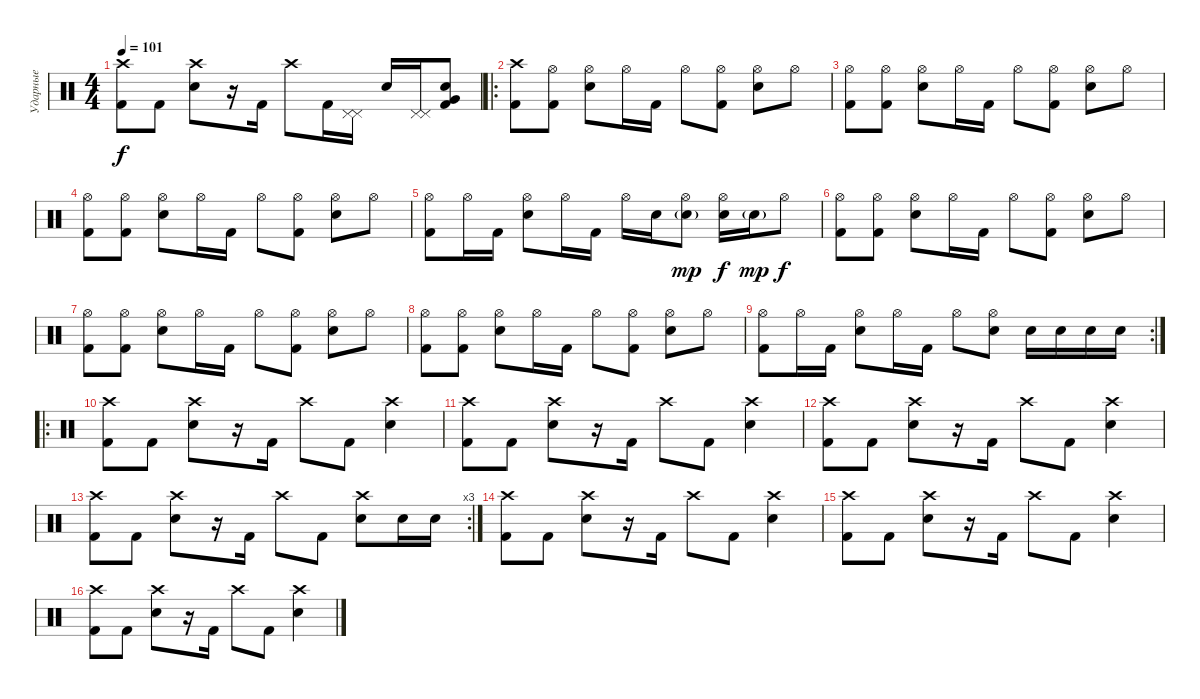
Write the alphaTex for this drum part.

\track ("Ударные" "Ударные") {instrument percussion}
\staff {score}
\articulation defaults
\ts (4 4)
\tempo 101
\clef neutral
\ks c
("Crash high (hit)" "Kick (hit) 2").8{dy f} "Kick (hit) 2".8 ("Crash high (hit)" "Snare (hit) 2").8 r.16 "Kick (hit) 2".16 "Crash high (hit)".8 "Kick (hit) 2".16 ("Pedal Hi-Hat (hit)" "Pedal Hi-Hat (hit)").16 "Snare (hit) 2".16 ("Pedal Hi-Hat (hit)" "Pedal Hi-Hat (hit)").16 ("Kick (hit) 2" "Snare (hit) 2" "Very Low Tom (hit)").8 |
\ro
("Crash high (hit)" "Kick (hit) 2").8 ("Hi-Hat (open)" "Kick (hit) 2").8 ("Hi-Hat (open)" "Snare (hit) 2").8 "Hi-Hat (open)".16 "Kick (hit) 2".16 "Hi-Hat (open)".8 ("Hi-Hat (open)" "Kick (hit) 2").8 ("Hi-Hat (open)" "Snare (hit) 2").8 "Hi-Hat (open)".8 |
("Hi-Hat (open)" "Kick (hit) 2").8 ("Hi-Hat (open)" "Kick (hit) 2").8 ("Hi-Hat (open)" "Snare (hit) 2").8 "Hi-Hat (open)".16 "Kick (hit) 2".16 "Hi-Hat (open)".8 ("Hi-Hat (open)" "Kick (hit) 2").8 ("Hi-Hat (open)" "Snare (hit) 2").8 "Hi-Hat (open)".8 |
("Hi-Hat (open)" "Kick (hit) 2").8 ("Hi-Hat (open)" "Kick (hit) 2").8 ("Hi-Hat (open)" "Snare (hit) 2").8 "Hi-Hat (open)".16 "Kick (hit) 2".16 "Hi-Hat (open)".8 ("Hi-Hat (open)" "Kick (hit) 2").8 ("Hi-Hat (open)" "Snare (hit) 2").8 "Hi-Hat (open)".8 |
("Hi-Hat (open)" "Kick (hit) 2").8 "Hi-Hat (open)".16 "Kick (hit) 2".16 ("Hi-Hat (open)" "Snare (hit) 2").8 "Hi-Hat (open)".16 "Kick (hit) 2".16 "Hi-Hat (open)".16 "Snare (hit) 2".16 ("Hi-Hat (open)" "Snare (hit) 2"{g}).8{dy mp} ("Hi-Hat (open)" "Snare (hit) 2").16{dy f} "Snare (hit) 2"{g}.16{dy mp} "Hi-Hat (open)".8{dy f} |
("Hi-Hat (open)" "Kick (hit) 2").8 ("Hi-Hat (open)" "Kick (hit) 2").8 ("Hi-Hat (open)" "Snare (hit) 2").8 "Hi-Hat (open)".16 "Kick (hit) 2".16 "Hi-Hat (open)".8 ("Hi-Hat (open)" "Kick (hit) 2").8 ("Hi-Hat (open)" "Snare (hit) 2").8 "Hi-Hat (open)".8 |
("Hi-Hat (open)" "Kick (hit) 2").8 ("Hi-Hat (open)" "Kick (hit) 2").8 ("Hi-Hat (open)" "Snare (hit) 2").8 "Hi-Hat (open)".16 "Kick (hit) 2".16 "Hi-Hat (open)".8 ("Hi-Hat (open)" "Kick (hit) 2").8 ("Hi-Hat (open)" "Snare (hit) 2").8 "Hi-Hat (open)".8 |
("Hi-Hat (open)" "Kick (hit) 2").8 ("Hi-Hat (open)" "Kick (hit) 2").8 ("Hi-Hat (open)" "Snare (hit) 2").8 "Hi-Hat (open)".16 "Kick (hit) 2".16 "Hi-Hat (open)".8 ("Hi-Hat (open)" "Kick (hit) 2").8 ("Hi-Hat (open)" "Snare (hit) 2").8 "Hi-Hat (open)".8 |
\rc 2
("Hi-Hat (open)" "Kick (hit) 2").8 "Hi-Hat (open)".16 "Kick (hit) 2".16 ("Hi-Hat (open)" "Snare (hit) 2").8 "Hi-Hat (open)".16 "Kick (hit) 2".16 "Hi-Hat (open)".8 ("Hi-Hat (open)" "Snare (hit) 2").8 "Snare (hit) 2".16 "Snare (hit) 2".16 "Snare (hit) 2".16 "Snare (hit) 2".16 |
\ro
("Crash high (hit)" "Kick (hit) 2").8 "Kick (hit) 2".8 ("Crash high (hit)" "Snare (hit) 2").8 r.16 "Kick (hit) 2".16 "Crash high (hit)".8 "Kick (hit) 2".8 ("Crash high (hit)" "Snare (hit) 2").4 |
("Crash high (hit)" "Kick (hit) 2").8 "Kick (hit) 2".8 ("Crash high (hit)" "Snare (hit) 2").8 r.16 "Kick (hit) 2".16 "Crash high (hit)".8 "Kick (hit) 2".8 ("Crash high (hit)" "Snare (hit) 2").4 |
("Crash high (hit)" "Kick (hit) 2").8 "Kick (hit) 2".8 ("Crash high (hit)" "Snare (hit) 2").8 r.16 "Kick (hit) 2".16 "Crash high (hit)".8 "Kick (hit) 2".8 ("Crash high (hit)" "Snare (hit) 2").4 |
\rc 3
("Crash high (hit)" "Kick (hit) 2").8 "Kick (hit) 2".8 ("Crash high (hit)" "Snare (hit) 2").8 r.16 "Kick (hit) 2".16 "Crash high (hit)".8 "Kick (hit) 2".8 ("Crash high (hit)" "Snare (hit) 2").8 "Snare (hit) 2".16 "Snare (hit) 2".16 |
("Crash high (hit)" "Kick (hit) 2").8 "Kick (hit) 2".8 ("Crash high (hit)" "Snare (hit) 2").8 r.16 "Kick (hit) 2".16 "Crash high (hit)".8 "Kick (hit) 2".8 ("Crash high (hit)" "Snare (hit) 2").4 |
("Crash high (hit)" "Kick (hit) 2").8 "Kick (hit) 2".8 ("Crash high (hit)" "Snare (hit) 2").8 r.16 "Kick (hit) 2".16 "Crash high (hit)".8 "Kick (hit) 2".8 ("Crash high (hit)" "Snare (hit) 2").4 |
("Crash high (hit)" "Kick (hit) 2").8 "Kick (hit) 2".8 ("Crash high (hit)" "Snare (hit) 2").8 r.16 "Kick (hit) 2".16 "Crash high (hit)".8 "Kick (hit) 2".8 ("Crash high (hit)" "Snare (hit) 2").4
